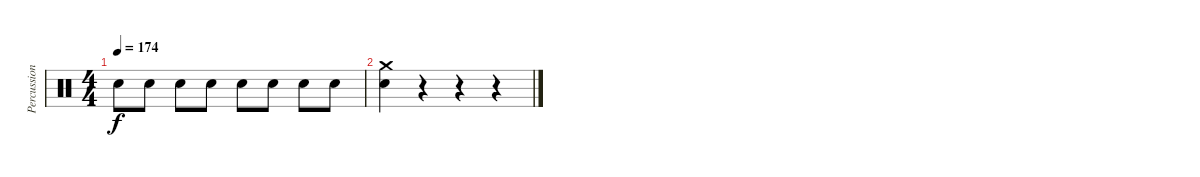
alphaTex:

\track ("Percussion" "Percussion") {instrument percussion}
\staff {score}
\articulation defaults
\ts (4 4)
\tempo 174
\clef neutral
\ks c "Electric Snare (hit)".8{dy f} "Electric Snare (hit)".8 "Electric Snare (hit)".8 "Electric Snare (hit)".8 "Electric Snare (hit)".8 "Electric Snare (hit)".8 "Electric Snare (hit)".8 "Electric Snare (hit)".8
|
("Crash medium (hit)" "Electric Snare (hit)").4 r.4 r.4 r.4
